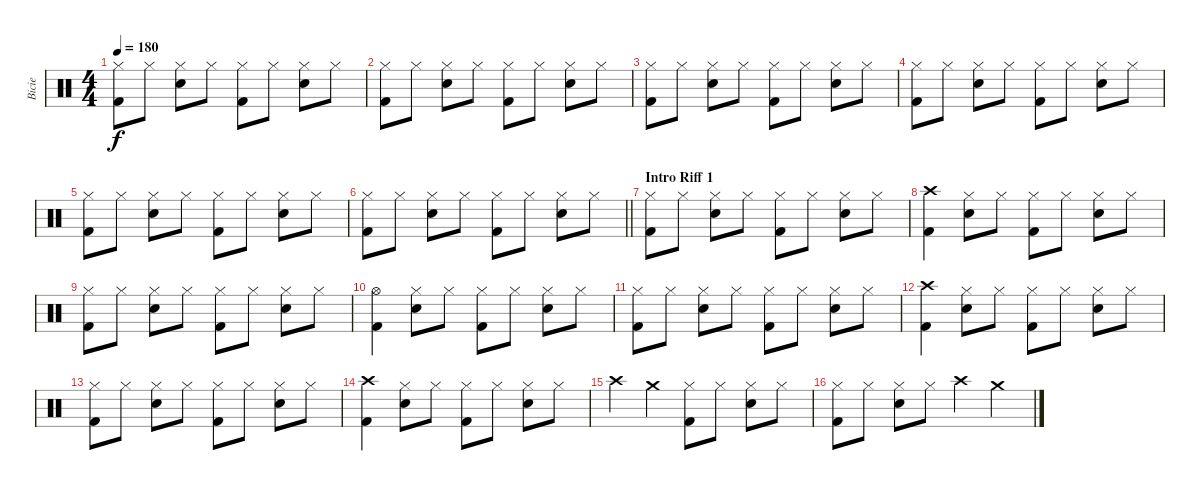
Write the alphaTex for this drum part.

\track ("Bicie" "Bicie") {instrument percussion}
\staff {score}
\articulation defaults
\ts (4 4)
\tempo 180
\clef neutral
\ks c
("Hi-Hat (closed)" "Kick (hit) 2").8{dy f} "Hi-Hat (closed)".8 ("Hi-Hat (closed)" "Snare (hit) 2").8 "Hi-Hat (closed)".8 ("Hi-Hat (closed)" "Kick (hit) 2").8 "Hi-Hat (closed)".8 ("Hi-Hat (closed)" "Snare (hit) 2").8 "Hi-Hat (closed)".8 |
("Hi-Hat (closed)" "Kick (hit) 2").8 "Hi-Hat (closed)".8 ("Hi-Hat (closed)" "Snare (hit) 2").8 "Hi-Hat (closed)".8 ("Hi-Hat (closed)" "Kick (hit) 2").8 "Hi-Hat (closed)".8 ("Hi-Hat (closed)" "Snare (hit) 2").8 "Hi-Hat (closed)".8 |
("Hi-Hat (closed)" "Kick (hit) 2").8 "Hi-Hat (closed)".8 ("Hi-Hat (closed)" "Snare (hit) 2").8 "Hi-Hat (closed)".8 ("Hi-Hat (closed)" "Kick (hit) 2").8 "Hi-Hat (closed)".8 ("Hi-Hat (closed)" "Snare (hit) 2").8 "Hi-Hat (closed)".8 |
("Hi-Hat (closed)" "Kick (hit) 2").8 "Hi-Hat (closed)".8 ("Hi-Hat (closed)" "Snare (hit) 2").8 "Hi-Hat (closed)".8 ("Hi-Hat (closed)" "Kick (hit) 2").8 "Hi-Hat (closed)".8 ("Hi-Hat (closed)" "Snare (hit) 2").8 "Hi-Hat (closed)".8 |
("Hi-Hat (closed)" "Kick (hit) 2").8 "Hi-Hat (closed)".8 ("Hi-Hat (closed)" "Snare (hit) 2").8 "Hi-Hat (closed)".8 ("Hi-Hat (closed)" "Kick (hit) 2").8 "Hi-Hat (closed)".8 ("Hi-Hat (closed)" "Snare (hit) 2").8 "Hi-Hat (closed)".8 |
\barLineRight lightlight
("Hi-Hat (closed)" "Kick (hit) 2").8 "Hi-Hat (closed)".8 ("Hi-Hat (closed)" "Snare (hit) 2").8 "Hi-Hat (closed)".8 ("Hi-Hat (closed)" "Kick (hit) 2").8 "Hi-Hat (closed)".8 ("Hi-Hat (closed)" "Snare (hit) 2").8 "Hi-Hat (closed)".8 |
\section ("" "Intro Riff 1")
("Hi-Hat (closed)" "Kick (hit) 2").8 "Hi-Hat (closed)".8 ("Hi-Hat (closed)" "Snare (hit) 2").8 "Hi-Hat (closed)".8 ("Hi-Hat (closed)" "Kick (hit) 2").8 "Hi-Hat (closed)".8 ("Hi-Hat (closed)" "Snare (hit) 2").8 "Hi-Hat (closed)".8 |
("Kick (hit) 2" "Crash high (hit)").4 ("Hi-Hat (closed)" "Snare (hit) 2").8 "Hi-Hat (closed)".8 ("Hi-Hat (closed)" "Kick (hit) 2").8 "Hi-Hat (closed)".8 ("Hi-Hat (closed)" "Snare (hit) 2").8 "Hi-Hat (closed)".8 |
("Hi-Hat (closed)" "Kick (hit) 2").8 "Hi-Hat (closed)".8 ("Hi-Hat (closed)" "Snare (hit) 2").8 "Hi-Hat (closed)".8 ("Hi-Hat (closed)" "Kick (hit) 2").8 "Hi-Hat (closed)".8 ("Hi-Hat (closed)" "Snare (hit) 2").8 "Hi-Hat (closed)".8 |
("Kick (hit) 2" "Hi-Hat (open)").4 ("Hi-Hat (closed)" "Snare (hit) 2").8 "Hi-Hat (closed)".8 ("Hi-Hat (closed)" "Kick (hit) 2").8 "Hi-Hat (closed)".8 ("Hi-Hat (closed)" "Snare (hit) 2").8 "Hi-Hat (closed)".8 |
("Hi-Hat (closed)" "Kick (hit) 2").8 "Hi-Hat (closed)".8 ("Hi-Hat (closed)" "Snare (hit) 2").8 "Hi-Hat (closed)".8 ("Hi-Hat (closed)" "Kick (hit) 2").8 "Hi-Hat (closed)".8 ("Hi-Hat (closed)" "Snare (hit) 2").8 "Hi-Hat (closed)".8 |
("Kick (hit) 2" "Crash high (hit)").4 ("Hi-Hat (closed)" "Snare (hit) 2").8 "Hi-Hat (closed)".8 ("Hi-Hat (closed)" "Kick (hit) 2").8 "Hi-Hat (closed)".8 ("Hi-Hat (closed)" "Snare (hit) 2").8 "Hi-Hat (closed)".8 |
("Hi-Hat (closed)" "Kick (hit) 2").8 "Hi-Hat (closed)".8 ("Hi-Hat (closed)" "Snare (hit) 2").8 "Hi-Hat (closed)".8 ("Hi-Hat (closed)" "Kick (hit) 2").8 "Hi-Hat (closed)".8 ("Hi-Hat (closed)" "Snare (hit) 2").8 "Hi-Hat (closed)".8 |
("Kick (hit) 2" "Crash high (hit)").4 ("Hi-Hat (closed)" "Snare (hit) 2").8 "Hi-Hat (closed)".8 ("Hi-Hat (closed)" "Kick (hit) 2").8 "Hi-Hat (closed)".8 ("Hi-Hat (closed)" "Snare (hit) 2").8 "Hi-Hat (closed)".8 |
"Crash high (hit)".4 "Crash medium (hit)".4 ("Hi-Hat (closed)" "Kick (hit) 2").8 "Hi-Hat (closed)".8 ("Hi-Hat (closed)" "Snare (hit) 2").8 "Hi-Hat (closed)".8 |
("Hi-Hat (closed)" "Kick (hit) 2").8 "Hi-Hat (closed)".8 ("Hi-Hat (closed)" "Snare (hit) 2").8 "Hi-Hat (closed)".8 "Crash high (hit)".4 "Crash medium (hit)".4
